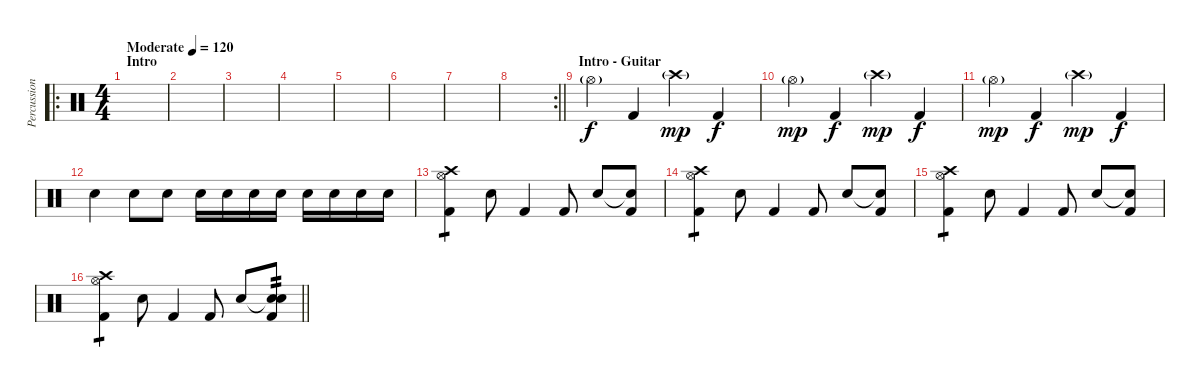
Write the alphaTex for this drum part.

\track ("Percussion" "Percussion") {instrument percussion}
\staff {score}
\articulation defaults
\ro
\ts (4 4)
\section ("" "Intro")
\tempo (120 "Moderate")
\clef neutral
\ks c
|
|
|
|
|
|
|
\rc 2
\barLineRight lightlight
|
\section ("" "Intro - Guitar")
"Hi-Hat (open)"{g}.4 "Kick (hit) 2".4{dy f} "Crash high (hit)"{g}.4{dy mp} "Kick (hit) 2".4{dy f} |
"Hi-Hat (open)"{g}.4{dy mp} "Kick (hit) 2".4{dy f} "Crash high (hit)"{g}.4{dy mp} "Kick (hit) 2".4{dy f} |
"Hi-Hat (open)"{g}.4{dy mp} "Kick (hit) 2".4{dy f} "Crash high (hit)"{g}.4{dy mp} "Kick (hit) 2".4{dy f} |
"Electric Snare (hit)".4 "Electric Snare (hit)".8 "Electric Snare (hit)".8 "Electric Snare (hit)".16 "Electric Snare (hit)".16 "Electric Snare (hit)".16 "Electric Snare (hit)".16 "Electric Snare (hit)".16 "Electric Snare (hit)".16 "Electric Snare (hit)".16 "Electric Snare (hit)".16 |
("Hi-Hat (open)" "Crash high (hit)" "Kick (hit) 2").4{tp 1} "Electric Snare (hit)".8 "Kick (hit) 2".4 "Kick (hit) 2".8 "Electric Snare (hit)".8 ("Snare (hit)"{t} "Kick (hit) 2").8 |
("Hi-Hat (open)" "Crash high (hit)" "Kick (hit) 2").4{tp 1} "Electric Snare (hit)".8 "Kick (hit) 2".4 "Kick (hit) 2".8 "Electric Snare (hit)".8 ("Snare (hit)"{t} "Kick (hit) 2").8 |
("Hi-Hat (open)" "Crash high (hit)" "Kick (hit) 2").4{tp 1} "Electric Snare (hit)".8 "Kick (hit) 2".4 "Kick (hit) 2".8 "Electric Snare (hit)".8 ("Snare (hit)"{t} "Kick (hit) 2").8 |
\barLineRight lightlight
("Hi-Hat (open)" "Crash high (hit)" "Kick (hit) 2").4{tp 1} "Electric Snare (hit)".8 "Kick (hit) 2".4 "Kick (hit) 2".8 "Electric Snare (hit)".8 ("Snare (hit)"{t} "Electric Snare (hit)" "Kick (hit) 2").8{tp 2}
